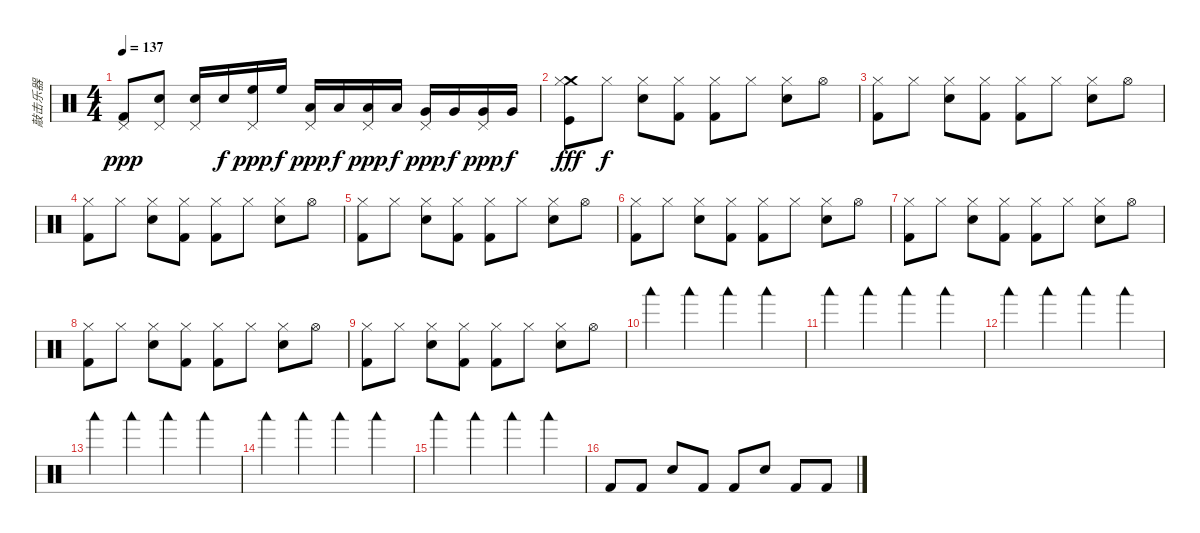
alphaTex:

\track ("敲击乐器" "敲击乐器") {instrument percussion}
\staff {score}
\articulation defaults
\ts (4 4)
\tempo 137
\clef neutral
\ks c
("Kick (hit) 2" "Pedal Hi-Hat (hit)").8{dy ppp} ("Snare (hit) 2" "Pedal Hi-Hat (hit)").8 ("Snare (hit) 2" "Pedal Hi-Hat (hit)").16 "Snare (hit) 2".16{dy f} ("High Floor Tom (hit)" "Pedal Hi-Hat (hit)").16{dy ppp} "High Floor Tom (hit)".16{dy f} ("Low Tom (hit)" "Pedal Hi-Hat (hit)").16{dy ppp} "Low Tom (hit)".16{dy f} ("Low Tom (hit)" "Pedal Hi-Hat (hit)").16{dy ppp} "Low Tom (hit)".16{dy f} ("Very Low Tom (hit)" "Pedal Hi-Hat (hit)").16{dy ppp} "Very Low Tom (hit)".16{dy f} ("Very Low Tom (hit)" "Pedal Hi-Hat (hit)").16{dy ppp} "Very Low Tom (hit)".16{dy f} |
("Crash medium (hit)" "Kick (hit)" "Hi-Hat (closed)").8{dy fff} "Hi-Hat (closed)".8{dy f} ("Snare (hit) 2" "Hi-Hat (closed)").8 ("Kick (hit) 2" "Hi-Hat (closed)").8 ("Kick (hit) 2" "Hi-Hat (closed)").8 "Hi-Hat (closed)".8 ("Snare (hit) 2" "Hi-Hat (closed)").8 "Hi-Hat (open)".8 |
("Kick (hit) 2" "Hi-Hat (closed)").8 "Hi-Hat (closed)".8 ("Snare (hit) 2" "Hi-Hat (closed)").8 ("Kick (hit) 2" "Hi-Hat (closed)").8 ("Kick (hit) 2" "Hi-Hat (closed)").8 "Hi-Hat (closed)".8 ("Snare (hit) 2" "Hi-Hat (closed)").8 "Hi-Hat (open)".8 |
("Kick (hit) 2" "Hi-Hat (closed)").8 "Hi-Hat (closed)".8 ("Snare (hit) 2" "Hi-Hat (closed)").8 ("Kick (hit) 2" "Hi-Hat (closed)").8 ("Kick (hit) 2" "Hi-Hat (closed)").8 "Hi-Hat (closed)".8 ("Snare (hit) 2" "Hi-Hat (closed)").8 "Hi-Hat (open)".8 |
("Kick (hit) 2" "Hi-Hat (closed)").8 "Hi-Hat (closed)".8 ("Snare (hit) 2" "Hi-Hat (closed)").8 ("Kick (hit) 2" "Hi-Hat (closed)").8 ("Kick (hit) 2" "Hi-Hat (closed)").8 "Hi-Hat (closed)".8 ("Snare (hit) 2" "Hi-Hat (closed)").8 "Hi-Hat (open)".8 |
("Kick (hit) 2" "Hi-Hat (closed)").8 "Hi-Hat (closed)".8 ("Snare (hit) 2" "Hi-Hat (closed)").8 ("Kick (hit) 2" "Hi-Hat (closed)").8 ("Kick (hit) 2" "Hi-Hat (closed)").8 "Hi-Hat (closed)".8 ("Snare (hit) 2" "Hi-Hat (closed)").8 "Hi-Hat (open)".8 |
("Kick (hit) 2" "Hi-Hat (closed)").8 "Hi-Hat (closed)".8 ("Snare (hit) 2" "Hi-Hat (closed)").8 ("Kick (hit) 2" "Hi-Hat (closed)").8 ("Kick (hit) 2" "Hi-Hat (closed)").8 "Hi-Hat (closed)".8 ("Snare (hit) 2" "Hi-Hat (closed)").8 "Hi-Hat (open)".8 |
("Kick (hit) 2" "Hi-Hat (closed)").8 "Hi-Hat (closed)".8 ("Snare (hit) 2" "Hi-Hat (closed)").8 ("Kick (hit) 2" "Hi-Hat (closed)").8 ("Kick (hit) 2" "Hi-Hat (closed)").8 "Hi-Hat (closed)".8 ("Snare (hit) 2" "Hi-Hat (closed)").8 "Hi-Hat (open)".8 |
("Kick (hit) 2" "Hi-Hat (closed)").8 "Hi-Hat (closed)".8 ("Snare (hit) 2" "Hi-Hat (closed)").8 ("Kick (hit) 2" "Hi-Hat (closed)").8 ("Kick (hit) 2" "Hi-Hat (closed)").8 "Hi-Hat (closed)".8 ("Snare (hit) 2" "Hi-Hat (closed)").8 "Hi-Hat (open)".8 |
"Woodblock low (hit)".4 "Woodblock low (hit)".4 "Woodblock low (hit)".4 "Woodblock low (hit)".4 |
"Woodblock low (hit)".4 "Woodblock low (hit)".4 "Woodblock low (hit)".4 "Woodblock low (hit)".4 |
"Woodblock low (hit)".4 "Woodblock low (hit)".4 "Woodblock low (hit)".4 "Woodblock low (hit)".4 |
"Woodblock low (hit)".4 "Woodblock low (hit)".4 "Woodblock low (hit)".4 "Woodblock low (hit)".4 |
"Woodblock low (hit)".4 "Woodblock low (hit)".4 "Woodblock low (hit)".4 "Woodblock low (hit)".4 |
"Woodblock low (hit)".4 "Woodblock low (hit)".4 "Woodblock low (hit)".4 "Woodblock low (hit)".4 |
"Kick (hit) 2".8 "Kick (hit) 2".8 "Snare (hit) 2".8 "Kick (hit) 2".8 "Kick (hit) 2".8 "Snare (hit) 2".8 "Kick (hit) 2".8 "Kick (hit) 2".8
